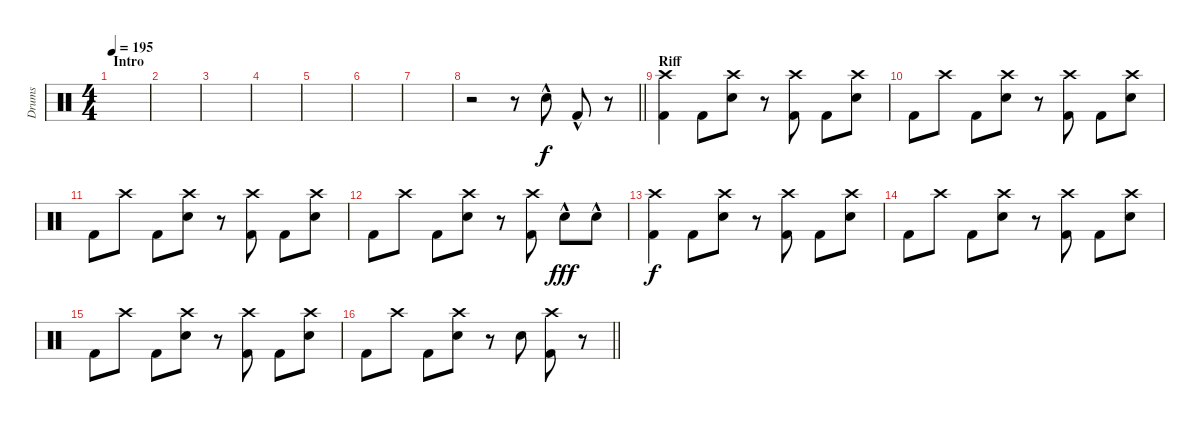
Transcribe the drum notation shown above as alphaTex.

\track ("Drums" "Drums") {instrument percussion}
\staff {score}
\articulation defaults
\ts (4 4)
\section ("" "Intro")
\tempo 195
\clef neutral
\ks c
|
|
|
|
|
|
|
\barLineRight lightlight
r.2 r.8 "Electric Snare (hit)"{hac}.8 "Kick (hit) 2"{hac}.8 r.8 |
\section ("" "Riff")
("Crash high (hit)" "Kick (hit) 2").4{dy f} "Kick (hit) 2".8 ("Crash high (hit)" "Electric Snare (hit)").8 r.8 ("Crash high (hit)" "Kick (hit) 2").8 "Kick (hit) 2".8 ("Crash high (hit)" "Electric Snare (hit)").8 |
"Kick (hit) 2".8 "Crash high (hit)".8 "Kick (hit) 2".8 ("Crash high (hit)" "Electric Snare (hit)").8 r.8 ("Crash high (hit)" "Kick (hit) 2").8 "Kick (hit) 2".8 ("Crash high (hit)" "Electric Snare (hit)").8 |
"Kick (hit) 2".8 "Crash high (hit)".8 "Kick (hit) 2".8 ("Crash high (hit)" "Electric Snare (hit)").8 r.8 ("Crash high (hit)" "Kick (hit) 2").8 "Kick (hit) 2".8 ("Crash high (hit)" "Electric Snare (hit)").8 |
"Kick (hit) 2".8 "Crash high (hit)".8 "Kick (hit) 2".8 ("Crash high (hit)" "Electric Snare (hit)").8 r.8 ("Crash high (hit)" "Kick (hit) 2").8 "Electric Snare (hit)"{hac}.8{dy fff} "Electric Snare (hit)"{hac}.8 |
("Crash high (hit)" "Kick (hit) 2").4{dy f} "Kick (hit) 2".8 ("Crash high (hit)" "Electric Snare (hit)").8 r.8 ("Crash high (hit)" "Kick (hit) 2").8 "Kick (hit) 2".8 ("Crash high (hit)" "Electric Snare (hit)").8 |
"Kick (hit) 2".8 "Crash high (hit)".8 "Kick (hit) 2".8 ("Crash high (hit)" "Electric Snare (hit)").8 r.8 ("Crash high (hit)" "Kick (hit) 2").8 "Kick (hit) 2".8 ("Crash high (hit)" "Electric Snare (hit)").8 |
"Kick (hit) 2".8 "Crash high (hit)".8 "Kick (hit) 2".8 ("Crash high (hit)" "Electric Snare (hit)").8 r.8 ("Crash high (hit)" "Kick (hit) 2").8 "Kick (hit) 2".8 ("Crash high (hit)" "Electric Snare (hit)").8 |
\barLineRight lightlight "Kick (hit) 2".8 "Crash high (hit)".8 "Kick (hit) 2".8
("Crash high (hit)" "Electric Snare (hit)").8 r.8 "Electric Snare (hit)".8 ("Crash high (hit)" "Kick (hit) 2").8 r.8
